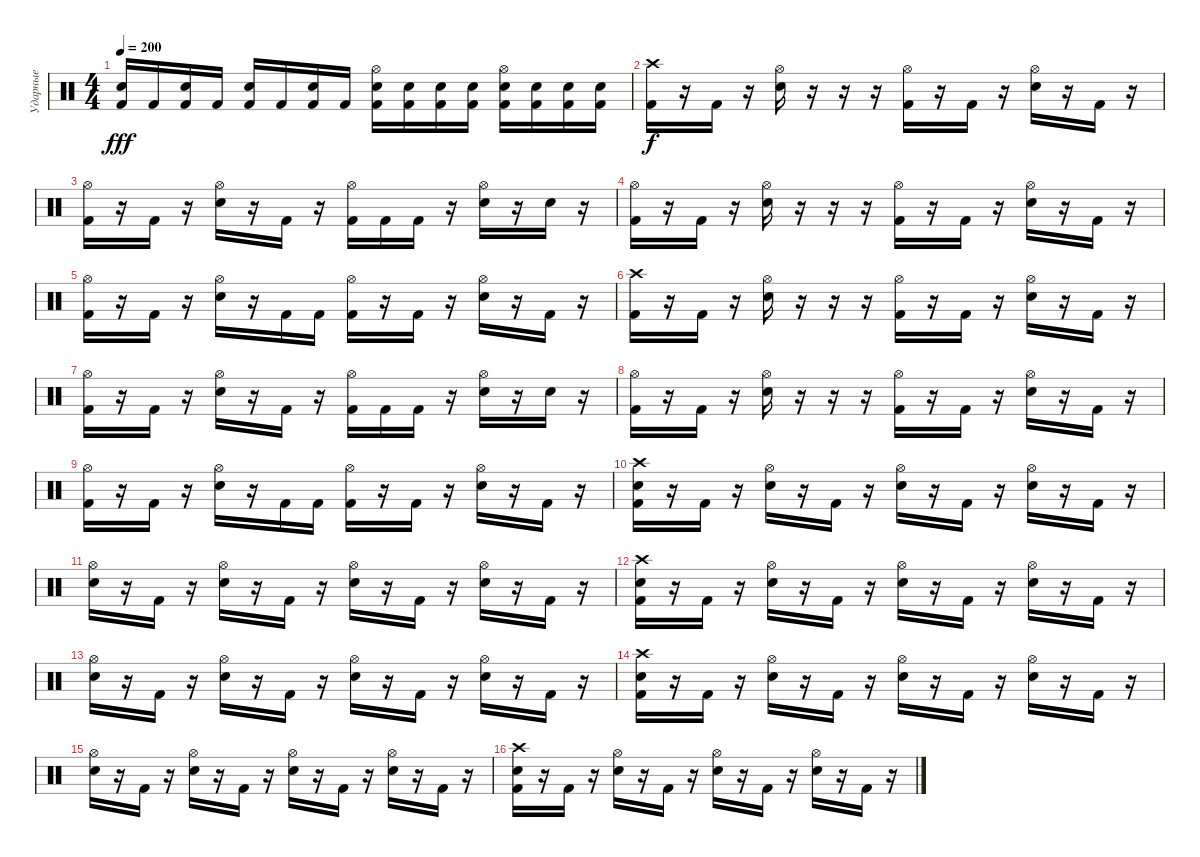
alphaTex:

\track ("Ударные" "Ударные") {instrument percussion}
\staff {score}
\articulation defaults
\ts (4 4)
\tempo 200
\clef neutral
\ks c
("Electric Snare (hit)" "Kick (hit) 2").16{dy fff} "Kick (hit) 2".16 ("Electric Snare (hit)" "Kick (hit) 2").16 "Kick (hit) 2".16 ("Electric Snare (hit)" "Kick (hit) 2").16 "Kick (hit) 2".16 ("Electric Snare (hit)" "Kick (hit) 2").16 "Kick (hit) 2".16 ("Hi-Hat (open)" "Electric Snare (hit)" "Kick (hit) 2").16 ("Electric Snare (hit)" "Kick (hit) 2").16 ("Electric Snare (hit)" "Kick (hit) 2").16 ("Electric Snare (hit)" "Kick (hit) 2").16 ("Hi-Hat (open)" "Electric Snare (hit)" "Kick (hit) 2").16 ("Electric Snare (hit)" "Kick (hit) 2").16 ("Electric Snare (hit)" "Kick (hit) 2").16 ("Electric Snare (hit)" "Kick (hit) 2").16 |
("Crash high (hit)" "Kick (hit) 2").16{dy f} r.16 "Kick (hit) 2".16 r.16 ("Hi-Hat (open)" "Electric Snare (hit)").16 r.16 r.16 r.16 ("Hi-Hat (open)" "Kick (hit) 2").16 r.16 "Kick (hit) 2".16 r.16 ("Hi-Hat (open)" "Electric Snare (hit)").16 r.16 "Kick (hit) 2".16 r.16 |
("Hi-Hat (open)" "Kick (hit) 2").16 r.16 "Kick (hit) 2".16 r.16 ("Hi-Hat (open)" "Electric Snare (hit)").16 r.16 "Kick (hit) 2".16 r.16 ("Hi-Hat (open)" "Kick (hit) 2").16 "Kick (hit) 2".16 "Kick (hit) 2".16 r.16 ("Hi-Hat (open)" "Electric Snare (hit)").16 r.16 "Electric Snare (hit)".16 r.16 |
("Hi-Hat (open)" "Kick (hit) 2").16 r.16 "Kick (hit) 2".16 r.16 ("Hi-Hat (open)" "Electric Snare (hit)").16 r.16 r.16 r.16 ("Hi-Hat (open)" "Kick (hit) 2").16 r.16 "Kick (hit) 2".16 r.16 ("Hi-Hat (open)" "Electric Snare (hit)").16 r.16 "Kick (hit) 2".16 r.16 |
("Hi-Hat (open)" "Kick (hit) 2").16 r.16 "Kick (hit) 2".16 r.16 ("Hi-Hat (open)" "Electric Snare (hit)").16 r.16 "Kick (hit) 2".16 "Kick (hit) 2".16 ("Hi-Hat (open)" "Kick (hit) 2").16 r.16 "Kick (hit) 2".16 r.16 ("Hi-Hat (open)" "Electric Snare (hit)").16 r.16 "Kick (hit) 2".16 r.16 |
("Crash high (hit)" "Kick (hit) 2").16 r.16 "Kick (hit) 2".16 r.16 ("Hi-Hat (open)" "Electric Snare (hit)").16 r.16 r.16 r.16 ("Hi-Hat (open)" "Kick (hit) 2").16 r.16 "Kick (hit) 2".16 r.16 ("Hi-Hat (open)" "Electric Snare (hit)").16 r.16 "Kick (hit) 2".16 r.16 |
("Hi-Hat (open)" "Kick (hit) 2").16 r.16 "Kick (hit) 2".16 r.16 ("Hi-Hat (open)" "Electric Snare (hit)").16 r.16 "Kick (hit) 2".16 r.16 ("Hi-Hat (open)" "Kick (hit) 2").16 "Kick (hit) 2".16 "Kick (hit) 2".16 r.16 ("Hi-Hat (open)" "Electric Snare (hit)").16 r.16 "Electric Snare (hit)".16 r.16 |
("Hi-Hat (open)" "Kick (hit) 2").16 r.16 "Kick (hit) 2".16 r.16 ("Hi-Hat (open)" "Electric Snare (hit)").16 r.16 r.16 r.16 ("Hi-Hat (open)" "Kick (hit) 2").16 r.16 "Kick (hit) 2".16 r.16 ("Hi-Hat (open)" "Electric Snare (hit)").16 r.16 "Kick (hit) 2".16 r.16 |
("Hi-Hat (open)" "Kick (hit) 2").16 r.16 "Kick (hit) 2".16 r.16 ("Hi-Hat (open)" "Electric Snare (hit)").16 r.16 "Kick (hit) 2".16 "Kick (hit) 2".16 ("Hi-Hat (open)" "Kick (hit) 2").16 r.16 "Kick (hit) 2".16 r.16 ("Hi-Hat (open)" "Electric Snare (hit)").16 r.16 "Kick (hit) 2".16 r.16 |
("Crash high (hit)" "Electric Snare (hit)" "Kick (hit) 2").16 r.16 "Kick (hit) 2".16 r.16 ("Hi-Hat (open)" "Electric Snare (hit)").16 r.16 "Kick (hit) 2".16 r.16 ("Hi-Hat (open)" "Electric Snare (hit)").16 r.16 "Kick (hit) 2".16 r.16 ("Hi-Hat (open)" "Electric Snare (hit)").16 r.16 "Kick (hit) 2".16 r.16 |
("Hi-Hat (open)" "Electric Snare (hit)").16 r.16 "Kick (hit) 2".16 r.16 ("Hi-Hat (open)" "Electric Snare (hit)").16 r.16 "Kick (hit) 2".16 r.16 ("Hi-Hat (open)" "Electric Snare (hit)").16 r.16 "Kick (hit) 2".16 r.16 ("Hi-Hat (open)" "Electric Snare (hit)").16 r.16 "Kick (hit) 2".16 r.16 |
("Crash high (hit)" "Electric Snare (hit)" "Kick (hit) 2").16 r.16 "Kick (hit) 2".16 r.16 ("Hi-Hat (open)" "Electric Snare (hit)").16 r.16 "Kick (hit) 2".16 r.16 ("Hi-Hat (open)" "Electric Snare (hit)").16 r.16 "Kick (hit) 2".16 r.16 ("Hi-Hat (open)" "Electric Snare (hit)").16 r.16 "Kick (hit) 2".16 r.16 |
("Hi-Hat (open)" "Electric Snare (hit)").16 r.16 "Kick (hit) 2".16 r.16 ("Hi-Hat (open)" "Electric Snare (hit)").16 r.16 "Kick (hit) 2".16 r.16 ("Hi-Hat (open)" "Electric Snare (hit)").16 r.16 "Kick (hit) 2".16 r.16 ("Hi-Hat (open)" "Electric Snare (hit)").16 r.16 "Kick (hit) 2".16 r.16 |
("Crash high (hit)" "Electric Snare (hit)" "Kick (hit) 2").16 r.16 "Kick (hit) 2".16 r.16 ("Hi-Hat (open)" "Electric Snare (hit)").16 r.16 "Kick (hit) 2".16 r.16 ("Hi-Hat (open)" "Electric Snare (hit)").16 r.16 "Kick (hit) 2".16 r.16 ("Hi-Hat (open)" "Electric Snare (hit)").16 r.16 "Kick (hit) 2".16 r.16 |
("Hi-Hat (open)" "Electric Snare (hit)").16 r.16 "Kick (hit) 2".16 r.16 ("Hi-Hat (open)" "Electric Snare (hit)").16 r.16 "Kick (hit) 2".16 r.16 ("Hi-Hat (open)" "Electric Snare (hit)").16 r.16 "Kick (hit) 2".16 r.16 ("Hi-Hat (open)" "Electric Snare (hit)").16 r.16 "Kick (hit) 2".16 r.16 |
("Crash high (hit)" "Electric Snare (hit)" "Kick (hit) 2").16 r.16 "Kick (hit) 2".16 r.16 ("Hi-Hat (open)" "Electric Snare (hit)").16 r.16 "Kick (hit) 2".16 r.16 ("Hi-Hat (open)" "Electric Snare (hit)").16 r.16 "Kick (hit) 2".16 r.16 ("Hi-Hat (open)" "Electric Snare (hit)").16 r.16 "Kick (hit) 2".16 r.16
